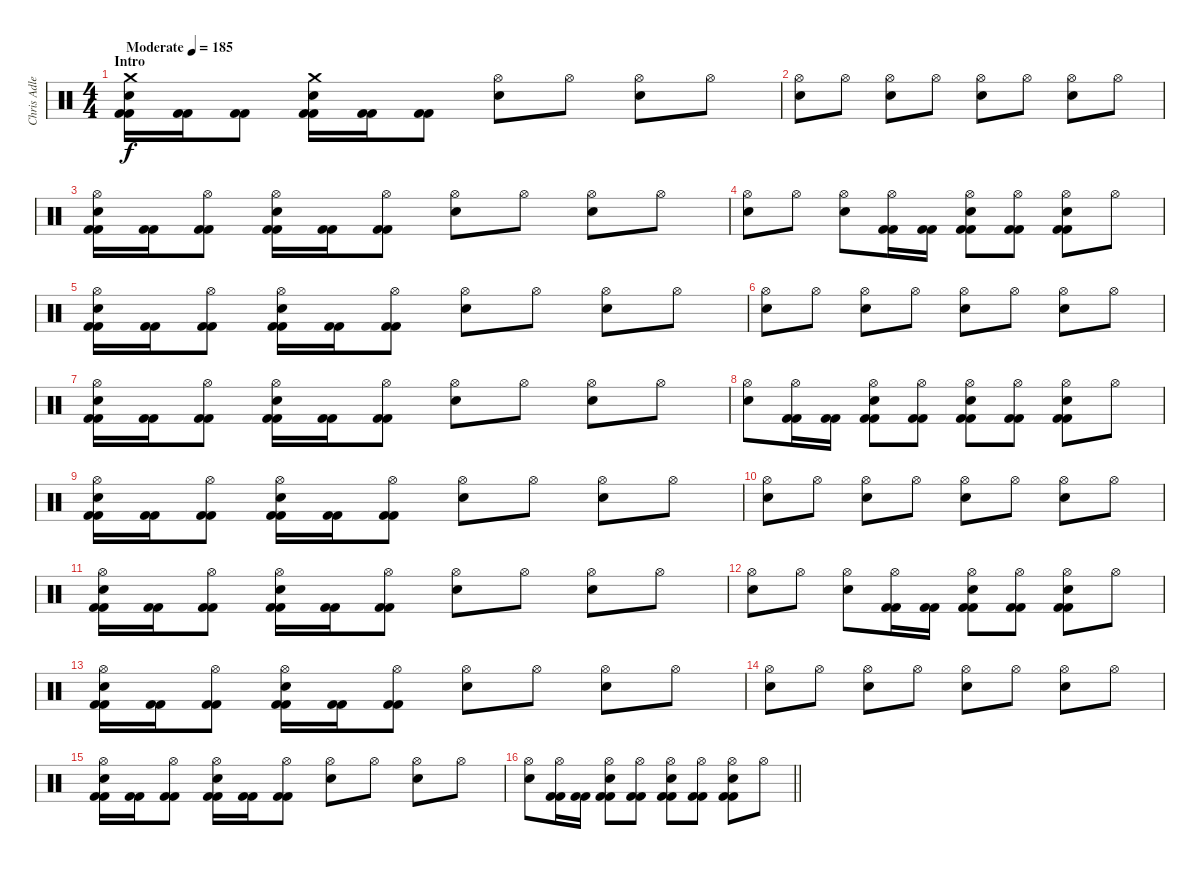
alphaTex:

\track ("Chris Adler" "Chris Adle") {instrument percussion}
\staff {score}
\articulation defaults
\ts (4 4)
\section ("" "Intro")
\tempo (185 "Moderate")
\clef neutral
\ks c
("Crash medium (hit)" "Electric Snare (hit)" "Kick (hit) 2" "Kick (hit) 2").16{dy f} ("Kick (hit) 2" "Kick (hit) 2").16 ("Kick (hit) 2" "Kick (hit) 2").8 ("Crash medium (hit)" "Electric Snare (hit)" "Kick (hit) 2" "Kick (hit) 2").16 ("Kick (hit) 2" "Kick (hit) 2").16 ("Kick (hit) 2" "Kick (hit) 2").8 ("Hi-Hat (open)" "Electric Snare (hit)").8 "Hi-Hat (open)".8 ("Hi-Hat (open)" "Electric Snare (hit)").8 "Hi-Hat (open)".8 |
("Hi-Hat (open)" "Electric Snare (hit)").8 "Hi-Hat (open)".8 ("Hi-Hat (open)" "Electric Snare (hit)").8 "Hi-Hat (open)".8 ("Hi-Hat (open)" "Electric Snare (hit)").8 "Hi-Hat (open)".8 ("Hi-Hat (open)" "Electric Snare (hit)").8 "Hi-Hat (open)".8 |
("Hi-Hat (open)" "Electric Snare (hit)" "Kick (hit) 2" "Kick (hit) 2").16 ("Kick (hit) 2" "Kick (hit) 2").16 ("Hi-Hat (open)" "Kick (hit) 2" "Kick (hit) 2").8 ("Hi-Hat (open)" "Electric Snare (hit)" "Kick (hit) 2" "Kick (hit) 2").16 ("Kick (hit) 2" "Kick (hit) 2").16 ("Hi-Hat (open)" "Kick (hit) 2" "Kick (hit) 2").8 ("Hi-Hat (open)" "Electric Snare (hit)").8 "Hi-Hat (open)".8 ("Hi-Hat (open)" "Electric Snare (hit)").8 "Hi-Hat (open)".8 |
("Hi-Hat (open)" "Electric Snare (hit)").8 "Hi-Hat (open)".8 ("Hi-Hat (open)" "Electric Snare (hit)").8 ("Hi-Hat (open)" "Kick (hit) 2" "Kick (hit) 2").16 ("Kick (hit) 2" "Kick (hit) 2").16 ("Hi-Hat (open)" "Electric Snare (hit)" "Kick (hit) 2" "Kick (hit) 2").8 ("Hi-Hat (open)" "Kick (hit) 2" "Kick (hit) 2").8 ("Hi-Hat (open)" "Electric Snare (hit)" "Kick (hit) 2" "Kick (hit) 2").8 "Hi-Hat (open)".8 |
("Hi-Hat (open)" "Electric Snare (hit)" "Kick (hit) 2" "Kick (hit) 2").16 ("Kick (hit) 2" "Kick (hit) 2").16 ("Hi-Hat (open)" "Kick (hit) 2" "Kick (hit) 2").8 ("Hi-Hat (open)" "Electric Snare (hit)" "Kick (hit) 2" "Kick (hit) 2").16 ("Kick (hit) 2" "Kick (hit) 2").16 ("Hi-Hat (open)" "Kick (hit) 2" "Kick (hit) 2").8 ("Hi-Hat (open)" "Electric Snare (hit)").8 "Hi-Hat (open)".8 ("Hi-Hat (open)" "Electric Snare (hit)").8 "Hi-Hat (open)".8 |
("Hi-Hat (open)" "Electric Snare (hit)").8 "Hi-Hat (open)".8 ("Hi-Hat (open)" "Electric Snare (hit)").8 "Hi-Hat (open)".8 ("Hi-Hat (open)" "Electric Snare (hit)").8 "Hi-Hat (open)".8 ("Hi-Hat (open)" "Electric Snare (hit)").8 "Hi-Hat (open)".8 |
("Hi-Hat (open)" "Electric Snare (hit)" "Kick (hit) 2" "Kick (hit) 2").16 ("Kick (hit) 2" "Kick (hit) 2").16 ("Hi-Hat (open)" "Kick (hit) 2" "Kick (hit) 2").8 ("Hi-Hat (open)" "Electric Snare (hit)" "Kick (hit) 2" "Kick (hit) 2").16 ("Kick (hit) 2" "Kick (hit) 2").16 ("Hi-Hat (open)" "Kick (hit) 2" "Kick (hit) 2").8 ("Hi-Hat (open)" "Electric Snare (hit)").8 "Hi-Hat (open)".8 ("Hi-Hat (open)" "Electric Snare (hit)").8 "Hi-Hat (open)".8 |
("Hi-Hat (open)" "Electric Snare (hit)").8 ("Hi-Hat (open)" "Kick (hit) 2" "Kick (hit) 2").16 ("Kick (hit) 2" "Kick (hit) 2").16 ("Hi-Hat (open)" "Electric Snare (hit)" "Kick (hit) 2" "Kick (hit) 2").8 ("Hi-Hat (open)" "Kick (hit) 2" "Kick (hit) 2").8 ("Hi-Hat (open)" "Electric Snare (hit)" "Kick (hit) 2" "Kick (hit) 2").8 ("Hi-Hat (open)" "Kick (hit) 2" "Kick (hit) 2").8 ("Hi-Hat (open)" "Electric Snare (hit)" "Kick (hit) 2" "Kick (hit) 2").8 "Hi-Hat (open)".8 |
("Hi-Hat (open)" "Electric Snare (hit)" "Kick (hit) 2" "Kick (hit) 2").16 ("Kick (hit) 2" "Kick (hit) 2").16 ("Hi-Hat (open)" "Kick (hit) 2" "Kick (hit) 2").8 ("Hi-Hat (open)" "Electric Snare (hit)" "Kick (hit) 2" "Kick (hit) 2").16 ("Kick (hit) 2" "Kick (hit) 2").16 ("Hi-Hat (open)" "Kick (hit) 2" "Kick (hit) 2").8 ("Hi-Hat (open)" "Electric Snare (hit)").8 "Hi-Hat (open)".8 ("Hi-Hat (open)" "Electric Snare (hit)").8 "Hi-Hat (open)".8 |
("Hi-Hat (open)" "Electric Snare (hit)").8 "Hi-Hat (open)".8 ("Hi-Hat (open)" "Electric Snare (hit)").8 "Hi-Hat (open)".8 ("Hi-Hat (open)" "Electric Snare (hit)").8 "Hi-Hat (open)".8 ("Hi-Hat (open)" "Electric Snare (hit)").8 "Hi-Hat (open)".8 |
("Hi-Hat (open)" "Electric Snare (hit)" "Kick (hit) 2" "Kick (hit) 2").16 ("Kick (hit) 2" "Kick (hit) 2").16 ("Hi-Hat (open)" "Kick (hit) 2" "Kick (hit) 2").8 ("Hi-Hat (open)" "Electric Snare (hit)" "Kick (hit) 2" "Kick (hit) 2").16 ("Kick (hit) 2" "Kick (hit) 2").16 ("Hi-Hat (open)" "Kick (hit) 2" "Kick (hit) 2").8 ("Hi-Hat (open)" "Electric Snare (hit)").8 "Hi-Hat (open)".8 ("Hi-Hat (open)" "Electric Snare (hit)").8 "Hi-Hat (open)".8 |
("Hi-Hat (open)" "Electric Snare (hit)").8 "Hi-Hat (open)".8 ("Hi-Hat (open)" "Electric Snare (hit)").8 ("Hi-Hat (open)" "Kick (hit) 2" "Kick (hit) 2").16 ("Kick (hit) 2" "Kick (hit) 2").16 ("Hi-Hat (open)" "Electric Snare (hit)" "Kick (hit) 2" "Kick (hit) 2").8 ("Hi-Hat (open)" "Kick (hit) 2" "Kick (hit) 2").8 ("Hi-Hat (open)" "Electric Snare (hit)" "Kick (hit) 2" "Kick (hit) 2").8 "Hi-Hat (open)".8 |
("Hi-Hat (open)" "Electric Snare (hit)" "Kick (hit) 2" "Kick (hit) 2").16 ("Kick (hit) 2" "Kick (hit) 2").16 ("Hi-Hat (open)" "Kick (hit) 2" "Kick (hit) 2").8 ("Hi-Hat (open)" "Electric Snare (hit)" "Kick (hit) 2" "Kick (hit) 2").16 ("Kick (hit) 2" "Kick (hit) 2").16 ("Hi-Hat (open)" "Kick (hit) 2" "Kick (hit) 2").8 ("Hi-Hat (open)" "Electric Snare (hit)").8 "Hi-Hat (open)".8 ("Hi-Hat (open)" "Electric Snare (hit)").8 "Hi-Hat (open)".8 |
("Hi-Hat (open)" "Electric Snare (hit)").8 "Hi-Hat (open)".8 ("Hi-Hat (open)" "Electric Snare (hit)").8 "Hi-Hat (open)".8 ("Hi-Hat (open)" "Electric Snare (hit)").8 "Hi-Hat (open)".8 ("Hi-Hat (open)" "Electric Snare (hit)").8 "Hi-Hat (open)".8 |
("Hi-Hat (open)" "Electric Snare (hit)" "Kick (hit) 2" "Kick (hit) 2").16 ("Kick (hit) 2" "Kick (hit) 2").16 ("Hi-Hat (open)" "Kick (hit) 2" "Kick (hit) 2").8 ("Hi-Hat (open)" "Electric Snare (hit)" "Kick (hit) 2" "Kick (hit) 2").16 ("Kick (hit) 2" "Kick (hit) 2").16 ("Hi-Hat (open)" "Kick (hit) 2" "Kick (hit) 2").8 ("Hi-Hat (open)" "Electric Snare (hit)").8 "Hi-Hat (open)".8 ("Hi-Hat (open)" "Electric Snare (hit)").8 "Hi-Hat (open)".8 |
\barLineRight lightlight
("Hi-Hat (open)" "Electric Snare (hit)").8 ("Hi-Hat (open)" "Kick (hit) 2" "Kick (hit) 2").16 ("Kick (hit) 2" "Kick (hit) 2").16 ("Hi-Hat (open)" "Electric Snare (hit)" "Kick (hit) 2" "Kick (hit) 2").8 ("Hi-Hat (open)" "Kick (hit) 2" "Kick (hit) 2").8 ("Hi-Hat (open)" "Electric Snare (hit)" "Kick (hit) 2" "Kick (hit) 2").8 ("Hi-Hat (open)" "Kick (hit) 2" "Kick (hit) 2").8 ("Hi-Hat (open)" "Electric Snare (hit)" "Kick (hit) 2" "Kick (hit) 2").8 "Hi-Hat (open)".8
